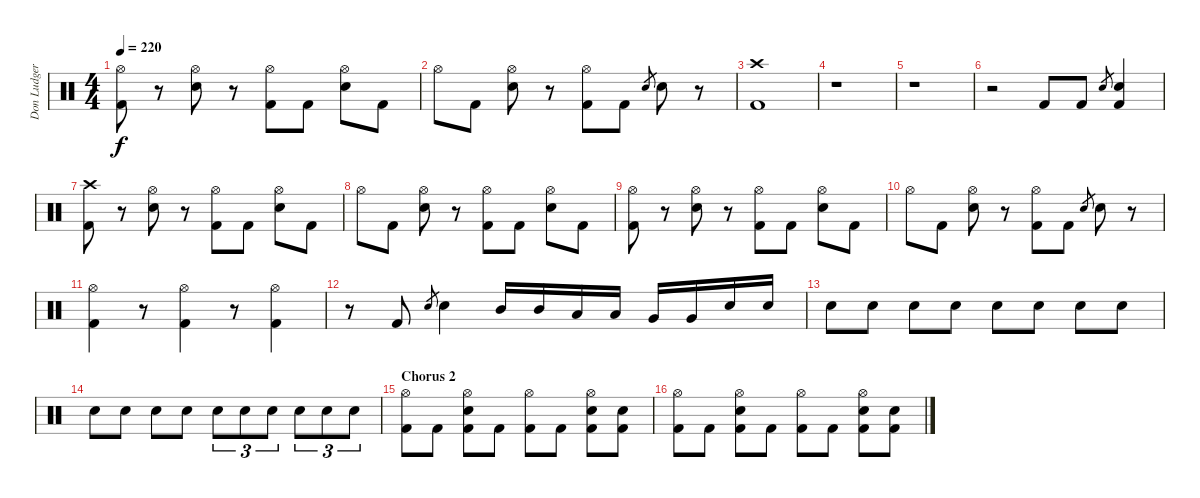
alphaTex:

\track ("Don Ludger" "Don Ludger") {instrument percussion}
\staff {score}
\articulation defaults
\ts (4 4)
\tempo 220
\clef neutral
\ks c
("Hi-Hat (open)" "Kick (hit) 2").8{dy f} r.8 ("Hi-Hat (open)" "Electric Snare (hit)").8 r.8 ("Hi-Hat (open)" "Kick (hit) 2").8 "Kick (hit) 2".8 ("Hi-Hat (open)" "Electric Snare (hit)").8 "Kick (hit) 2".8 |
"Hi-Hat (open)".8 "Kick (hit) 2".8 ("Hi-Hat (open)" "Electric Snare (hit)").8 r.8 ("Hi-Hat (open)" "Kick (hit) 2").8 "Kick (hit) 2".8 "Electric Snare (hit)".8{gr} "Electric Snare (hit)".8 r.8 |
("Crash high (hit)" "Kick (hit) 2").1 |
r.1 |
r.1 |
r.2 "Kick (hit) 2".8 "Kick (hit) 2".8 "Electric Snare (hit)".8{gr} ("Electric Snare (hit)" "Kick (hit) 2").4 |
("Crash high (hit)" "Kick (hit) 2").8 r.8 ("Hi-Hat (open)" "Electric Snare (hit)").8 r.8 ("Hi-Hat (open)" "Kick (hit) 2").8 "Kick (hit) 2".8 ("Hi-Hat (open)" "Electric Snare (hit)").8 "Kick (hit) 2".8 |
"Hi-Hat (open)".8 "Kick (hit) 2".8 ("Hi-Hat (open)" "Electric Snare (hit)").8 r.8 ("Hi-Hat (open)" "Kick (hit) 2").8 "Kick (hit) 2".8 ("Hi-Hat (open)" "Electric Snare (hit)").8 "Kick (hit) 2".8 |
("Hi-Hat (open)" "Kick (hit) 2").8 r.8 ("Hi-Hat (open)" "Electric Snare (hit)").8 r.8 ("Hi-Hat (open)" "Kick (hit) 2").8 "Kick (hit) 2".8 ("Hi-Hat (open)" "Electric Snare (hit)").8 "Kick (hit) 2".8 |
"Hi-Hat (open)".8 "Kick (hit) 2".8 ("Hi-Hat (open)" "Electric Snare (hit)").8 r.8 ("Hi-Hat (open)" "Kick (hit) 2").8 "Kick (hit) 2".8 "Electric Snare (hit)".8{gr} "Electric Snare (hit)".8 r.8 |
("Hi-Hat (open)" "Kick (hit) 2").4 r.8 ("Hi-Hat (open)" "Kick (hit) 2").4 r.8 ("Hi-Hat (open)" "Kick (hit) 2").4 |
r.8 "Kick (hit) 2".8 "Electric Snare (hit)".8{gr} "Electric Snare (hit)".4 "Mid Tom (hit)".16 "Mid Tom (hit)".16 "Low Tom (hit)".16 "Low Tom (hit)".16 "Very Low Tom (hit)".16 "Very Low Tom (hit)".16 "Electric Snare (hit)".16 "Electric Snare (hit)".16 |
"Electric Snare (hit)".8 "Electric Snare (hit)".8 "Electric Snare (hit)".8 "Electric Snare (hit)".8 "Electric Snare (hit)".8 "Electric Snare (hit)".8 "Electric Snare (hit)".8 "Electric Snare (hit)".8 |
"Electric Snare (hit)".8 "Electric Snare (hit)".8 "Electric Snare (hit)".8 "Electric Snare (hit)".8 "Electric Snare (hit)".8{tu (3 2)} "Electric Snare (hit)".8{tu (3 2)} "Electric Snare (hit)".8{tu (3 2)} "Electric Snare (hit)".8{tu (3 2)} "Electric Snare (hit)".8{tu (3 2)} "Electric Snare (hit)".8{tu (3 2)} |
\section ("" "Chorus 2")
("Hi-Hat (open)" "Kick (hit) 2").8 "Kick (hit) 2".8 ("Hi-Hat (open)" "Electric Snare (hit)" "Kick (hit) 2").8 "Kick (hit) 2".8 ("Hi-Hat (open)" "Kick (hit) 2").8 "Kick (hit) 2".8 ("Hi-Hat (open)" "Electric Snare (hit)" "Kick (hit) 2").8 ("Electric Snare (hit)" "Kick (hit) 2").8 |
("Hi-Hat (open)" "Kick (hit) 2").8 "Kick (hit) 2".8 ("Hi-Hat (open)" "Electric Snare (hit)" "Kick (hit) 2").8 "Kick (hit) 2".8 ("Hi-Hat (open)" "Kick (hit) 2").8 "Kick (hit) 2".8 ("Hi-Hat (open)" "Electric Snare (hit)" "Kick (hit) 2").8 ("Electric Snare (hit)" "Kick (hit) 2").8
